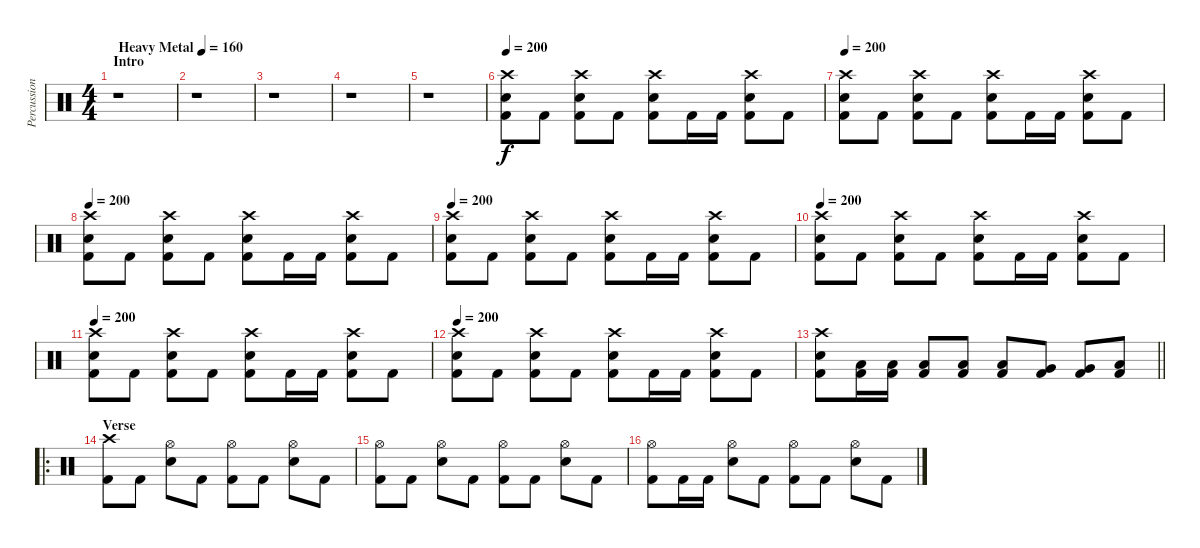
\track ("Percussion" "Percussion") {instrument percussion}
\staff
\articulation defaults
\ts (4 4)
\section ("" "Intro")
\tempo (160 "Heavy Metal")
\clef neutral
\ks c
r.1{dy f} |
r.1 |
r.1 |
r.1 |
r.1 |
\tempo 200
("Crash high (hit)" "Electric Snare (hit)" "Kick (hit) 2").8 "Kick (hit) 2".8 ("Crash high (hit)" "Electric Snare (hit)" "Kick (hit) 2").8 "Kick (hit) 2".8 ("Crash high (hit)" "Electric Snare (hit)" "Kick (hit) 2").8 "Kick (hit) 2".16 "Kick (hit) 2".16 ("Crash high (hit)" "Electric Snare (hit)" "Kick (hit) 2").8 "Kick (hit) 2".8 |
\tempo 200
("Crash high (hit)" "Electric Snare (hit)" "Kick (hit) 2").8 "Kick (hit) 2".8 ("Crash high (hit)" "Electric Snare (hit)" "Kick (hit) 2").8 "Kick (hit) 2".8 ("Crash high (hit)" "Electric Snare (hit)" "Kick (hit) 2").8 "Kick (hit) 2".16 "Kick (hit) 2".16 ("Crash high (hit)" "Electric Snare (hit)" "Kick (hit) 2").8 "Kick (hit) 2".8 |
\tempo 200
("Crash high (hit)" "Electric Snare (hit)" "Kick (hit) 2").8 "Kick (hit) 2".8 ("Crash high (hit)" "Electric Snare (hit)" "Kick (hit) 2").8 "Kick (hit) 2".8 ("Crash high (hit)" "Electric Snare (hit)" "Kick (hit) 2").8 "Kick (hit) 2".16 "Kick (hit) 2".16 ("Crash high (hit)" "Electric Snare (hit)" "Kick (hit) 2").8 "Kick (hit) 2".8 |
\tempo 200
("Crash high (hit)" "Electric Snare (hit)" "Kick (hit) 2").8 "Kick (hit) 2".8 ("Crash high (hit)" "Electric Snare (hit)" "Kick (hit) 2").8 "Kick (hit) 2".8 ("Crash high (hit)" "Electric Snare (hit)" "Kick (hit) 2").8 "Kick (hit) 2".16 "Kick (hit) 2".16 ("Crash high (hit)" "Electric Snare (hit)" "Kick (hit) 2").8 "Kick (hit) 2".8 |
\tempo 200
("Crash high (hit)" "Electric Snare (hit)" "Kick (hit) 2").8 "Kick (hit) 2".8 ("Crash high (hit)" "Electric Snare (hit)" "Kick (hit) 2").8 "Kick (hit) 2".8 ("Crash high (hit)" "Electric Snare (hit)" "Kick (hit) 2").8 "Kick (hit) 2".16 "Kick (hit) 2".16 ("Crash high (hit)" "Electric Snare (hit)" "Kick (hit) 2").8 "Kick (hit) 2".8 |
\tempo 200
("Crash high (hit)" "Electric Snare (hit)" "Kick (hit) 2").8 "Kick (hit) 2".8 ("Crash high (hit)" "Electric Snare (hit)" "Kick (hit) 2").8 "Kick (hit) 2".8 ("Crash high (hit)" "Electric Snare (hit)" "Kick (hit) 2").8 "Kick (hit) 2".16 "Kick (hit) 2".16 ("Crash high (hit)" "Electric Snare (hit)" "Kick (hit) 2").8 "Kick (hit) 2".8 |
\tempo 200
("Crash high (hit)" "Electric Snare (hit)" "Kick (hit) 2").8 "Kick (hit) 2".8 ("Crash high (hit)" "Electric Snare (hit)" "Kick (hit) 2").8 "Kick (hit) 2".8 ("Crash high (hit)" "Electric Snare (hit)" "Kick (hit) 2").8 "Kick (hit) 2".16 "Kick (hit) 2".16 ("Crash high (hit)" "Electric Snare (hit)" "Kick (hit) 2").8 "Kick (hit) 2".8 |
\barLineRight lightlight
("Crash high (hit)" "Electric Snare (hit)" "Kick (hit) 2").8 ("Low Tom (hit)" "Kick (hit) 2").16 ("Low Tom (hit)" "Kick (hit) 2").16 ("Low Tom (hit)" "Kick (hit) 2").8 ("Low Tom (hit)" "Kick (hit) 2").8 ("Low Tom (hit)" "Kick (hit) 2").8 ("Very Low Tom (hit)" "Kick (hit) 2").8 ("Very Low Tom (hit)" "Kick (hit) 2").8 ("Low Floor Tom (hit)" "Kick (hit) 2").8 |
\ro
\section ("" "Verse")
("Crash high (hit)" "Kick (hit) 2").8 "Kick (hit) 2".8 ("Hi-Hat (open)" "Electric Snare (hit)").8 "Kick (hit) 2".8 ("Hi-Hat (open)" "Kick (hit) 2").8 "Kick (hit) 2".8 ("Hi-Hat (open)" "Electric Snare (hit)").8 "Kick (hit) 2".8 |
("Hi-Hat (open)" "Kick (hit) 2").8 "Kick (hit) 2".8 ("Hi-Hat (open)" "Electric Snare (hit)").8 "Kick (hit) 2".8 ("Hi-Hat (open)" "Kick (hit) 2").8 "Kick (hit) 2".8 ("Hi-Hat (open)" "Electric Snare (hit)").8 "Kick (hit) 2".8 |
("Hi-Hat (open)" "Kick (hit) 2").8 "Kick (hit) 2".16 "Kick (hit) 2".16 ("Hi-Hat (open)" "Electric Snare (hit)").8 "Kick (hit) 2".8 ("Hi-Hat (open)" "Kick (hit) 2").8 "Kick (hit) 2".8 ("Hi-Hat (open)" "Electric Snare (hit)").8 "Kick (hit) 2".8
